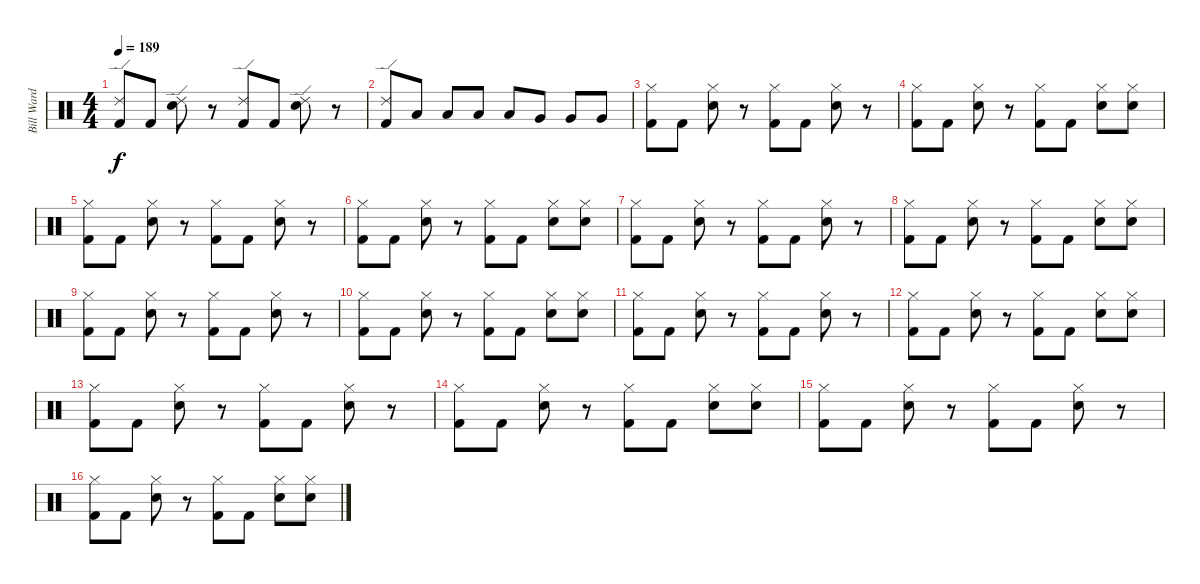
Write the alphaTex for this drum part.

\track ("Bill Ward" "Bill Ward") {instrument percussion}
\staff {score}
\articulation defaults
\ts (4 4)
\tempo 189
\clef neutral
\ks c
("Ride (edge) 2" "Kick (hit) 2").8{dy f} "Kick (hit) 2".8 ("Ride (edge) 2" "Electric Snare (hit)").8 r.8 ("Kick (hit) 2" "Ride (edge) 2").8 "Kick (hit) 2".8 ("Electric Snare (hit)" "Ride (edge) 2").8 r.8 |
("Ride (edge) 2" "Kick (hit) 2").8 "Low Tom (hit)".8 "Low Tom (hit)".8 "Low Tom (hit)".8 "Low Tom (hit)".8 "Very Low Tom (hit)".8 "Very Low Tom (hit)".8 "Very Low Tom (hit)".8 |
("Kick (hit) 2" "Hi-Hat (closed)").8 "Kick (hit) 2".8 ("Hi-Hat (closed)" "Electric Snare (hit)").8 r.8 ("Kick (hit) 2" "Hi-Hat (closed)").8 "Kick (hit) 2".8 ("Hi-Hat (closed)" "Electric Snare (hit)").8 r.8 |
("Hi-Hat (closed)" "Kick (hit) 2").8 "Kick (hit) 2".8 ("Hi-Hat (closed)" "Electric Snare (hit)").8 r.8 ("Kick (hit) 2" "Hi-Hat (closed)").8 "Kick (hit) 2".8 ("Hi-Hat (closed)" "Electric Snare (hit)").8 ("Electric Snare (hit)" "Hi-Hat (closed)").8 |
("Kick (hit) 2" "Hi-Hat (closed)").8 "Kick (hit) 2".8 ("Hi-Hat (closed)" "Electric Snare (hit)").8 r.8 ("Hi-Hat (closed)" "Kick (hit) 2").8 "Kick (hit) 2".8 ("Electric Snare (hit)" "Hi-Hat (closed)").8 r.8 |
("Kick (hit) 2" "Hi-Hat (closed)").8 "Kick (hit) 2".8 ("Hi-Hat (closed)" "Electric Snare (hit)").8 r.8 ("Hi-Hat (closed)" "Kick (hit) 2").8 "Kick (hit) 2".8 ("Hi-Hat (closed)" "Electric Snare (hit)").8 ("Hi-Hat (closed)" "Electric Snare (hit)").8 |
("Kick (hit) 2" "Hi-Hat (closed)").8 "Kick (hit) 2".8 ("Hi-Hat (closed)" "Electric Snare (hit)").8 r.8 ("Hi-Hat (closed)" "Kick (hit) 2").8 "Kick (hit) 2".8 ("Hi-Hat (closed)" "Electric Snare (hit)").8 r.8 |
("Hi-Hat (closed)" "Kick (hit) 2").8 "Kick (hit) 2".8 ("Hi-Hat (closed)" "Electric Snare (hit)").8 r.8 ("Kick (hit) 2" "Hi-Hat (closed)").8 "Kick (hit) 2".8 ("Electric Snare (hit)" "Hi-Hat (closed)").8 ("Electric Snare (hit)" "Hi-Hat (closed)").8 |
("Hi-Hat (closed)" "Kick (hit) 2").8 "Kick (hit) 2".8 ("Hi-Hat (closed)" "Electric Snare (hit)").8 r.8 ("Hi-Hat (closed)" "Kick (hit) 2").8 "Kick (hit) 2".8 ("Hi-Hat (closed)" "Electric Snare (hit)").8 r.8 |
("Kick (hit) 2" "Hi-Hat (closed)").8 "Kick (hit) 2".8 ("Hi-Hat (closed)" "Electric Snare (hit)").8 r.8 ("Hi-Hat (closed)" "Kick (hit) 2").8 "Kick (hit) 2".8 ("Hi-Hat (closed)" "Electric Snare (hit)").8 ("Hi-Hat (closed)" "Electric Snare (hit)").8 |
("Hi-Hat (closed)" "Kick (hit) 2").8 "Kick (hit) 2".8 ("Hi-Hat (closed)" "Electric Snare (hit)").8 r.8 ("Kick (hit) 2" "Hi-Hat (closed)").8 "Kick (hit) 2".8 ("Hi-Hat (closed)" "Electric Snare (hit)").8 r.8 |
("Hi-Hat (closed)" "Kick (hit) 2").8 "Kick (hit) 2".8 ("Electric Snare (hit)" "Hi-Hat (closed)").8 r.8 ("Kick (hit) 2" "Hi-Hat (closed)").8 "Kick (hit) 2".8 ("Electric Snare (hit)" "Hi-Hat (closed)").8 ("Electric Snare (hit)" "Hi-Hat (closed)").8 |
("Kick (hit) 2" "Hi-Hat (closed)").8 "Kick (hit) 2".8 ("Hi-Hat (closed)" "Electric Snare (hit)").8 r.8 ("Kick (hit) 2" "Hi-Hat (closed)").8 "Kick (hit) 2".8 ("Electric Snare (hit)" "Hi-Hat (closed)").8 r.8 |
("Hi-Hat (closed)" "Kick (hit) 2").8 "Kick (hit) 2".8 ("Hi-Hat (closed)" "Electric Snare (hit)").8 r.8 ("Hi-Hat (closed)" "Kick (hit) 2").8 "Kick (hit) 2".8 ("Hi-Hat (closed)" "Electric Snare (hit)").8 ("Electric Snare (hit)" "Hi-Hat (closed)").8 |
("Hi-Hat (closed)" "Kick (hit) 2").8 "Kick (hit) 2".8 ("Electric Snare (hit)" "Hi-Hat (closed)").8 r.8 ("Hi-Hat (closed)" "Kick (hit) 2").8 "Kick (hit) 2".8 ("Hi-Hat (closed)" "Electric Snare (hit)").8 r.8 |
("Kick (hit) 2" "Hi-Hat (closed)").8 "Kick (hit) 2".8 ("Hi-Hat (closed)" "Electric Snare (hit)").8 r.8 ("Kick (hit) 2" "Hi-Hat (closed)").8 "Kick (hit) 2".8 ("Hi-Hat (closed)" "Electric Snare (hit)").8 ("Electric Snare (hit)" "Hi-Hat (closed)").8
